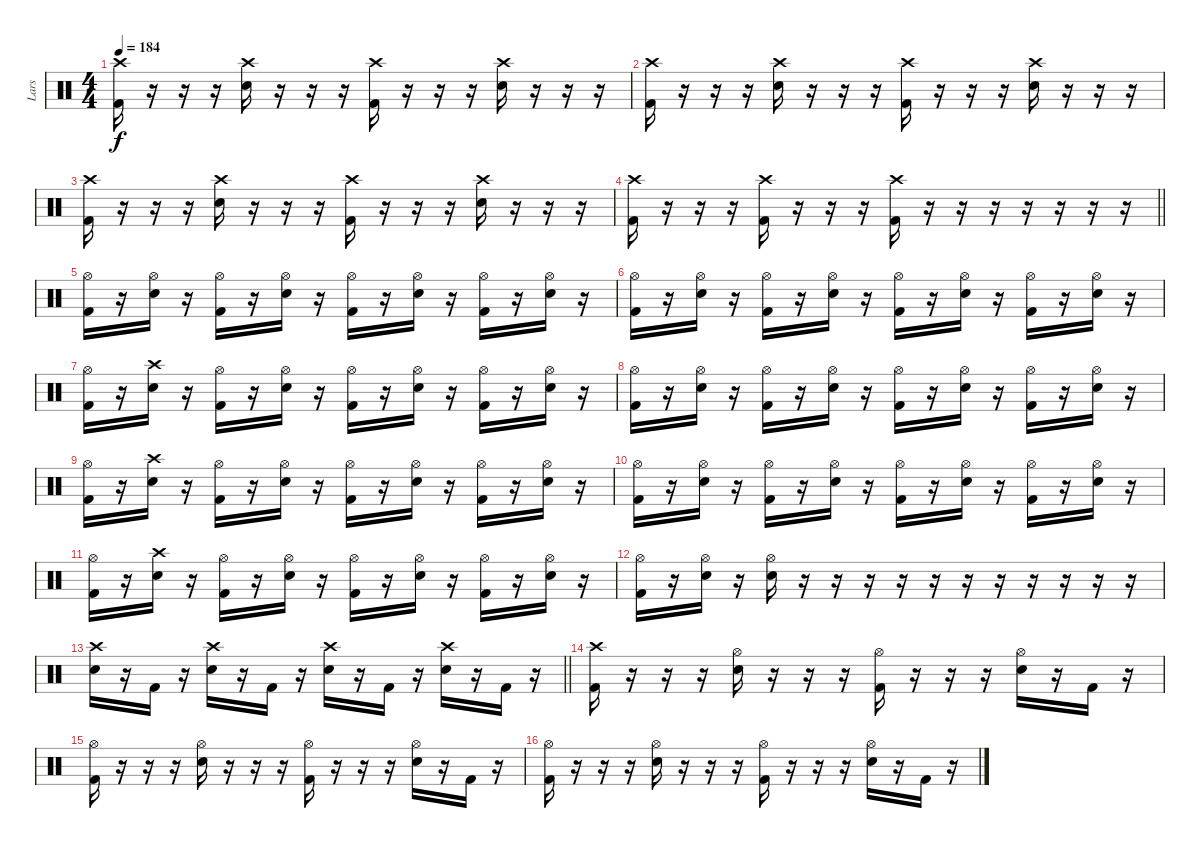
\track ("Lars" "Lars") {instrument percussion}
\staff {score}
\articulation defaults
\ts (4 4)
\tempo 184
\clef neutral
\ks c
("Crash high (hit)" "Kick (hit) 2").16{dy f} r.16 r.16 r.16 ("Crash high (hit)" "Electric Snare (hit)").16 r.16 r.16 r.16 ("Crash high (hit)" "Kick (hit) 2").16 r.16 r.16 r.16 ("Crash high (hit)" "Electric Snare (hit)").16 r.16 r.16 r.16 |
("Crash high (hit)" "Kick (hit) 2").16 r.16 r.16 r.16 ("Crash high (hit)" "Electric Snare (hit)").16 r.16 r.16 r.16 ("Crash high (hit)" "Kick (hit) 2").16 r.16 r.16 r.16 ("Crash high (hit)" "Electric Snare (hit)").16 r.16 r.16 r.16 |
("Crash high (hit)" "Kick (hit) 2").16 r.16 r.16 r.16 ("Crash high (hit)" "Electric Snare (hit)").16 r.16 r.16 r.16 ("Crash high (hit)" "Kick (hit) 2").16 r.16 r.16 r.16 ("Crash high (hit)" "Electric Snare (hit)").16 r.16 r.16 r.16 |
\barLineRight lightlight
("Crash high (hit)" "Kick (hit) 2").16 r.16 r.16 r.16{volume 0} ("Crash high (hit)" "Kick (hit) 2").16{volume 10} r.16 r.16 r.16{volume 0} ("Crash high (hit)" "Kick (hit) 2").16{volume 10} r.16 r.16 r.16{volume 0} r.16 r.16 r.16 r.16 |
("Hi-Hat (open)" "Kick (hit) 2").16{volume 10} r.16 ("Electric Snare (hit)" "Hi-Hat (open)").16 r.16 ("Hi-Hat (open)" "Kick (hit) 2").16 r.16 ("Electric Snare (hit)" "Hi-Hat (open)").16 r.16 ("Hi-Hat (open)" "Kick (hit) 2").16 r.16 ("Electric Snare (hit)" "Hi-Hat (open)").16 r.16 ("Hi-Hat (open)" "Kick (hit) 2").16 r.16 ("Electric Snare (hit)" "Hi-Hat (open)").16 r.16 |
("Hi-Hat (open)" "Kick (hit) 2").16 r.16 ("Electric Snare (hit)" "Hi-Hat (open)").16 r.16 ("Hi-Hat (open)" "Kick (hit) 2").16 r.16 ("Electric Snare (hit)" "Hi-Hat (open)").16 r.16 ("Hi-Hat (open)" "Kick (hit) 2").16 r.16 ("Electric Snare (hit)" "Hi-Hat (open)").16 r.16 ("Hi-Hat (open)" "Kick (hit) 2").16 r.16 ("Electric Snare (hit)" "Hi-Hat (open)").16 r.16 |
("Hi-Hat (open)" "Kick (hit) 2").16 r.16 ("Crash high (hit)" "Electric Snare (hit)").16 r.16 ("Hi-Hat (open)" "Kick (hit) 2").16 r.16 ("Electric Snare (hit)" "Hi-Hat (open)").16 r.16 ("Hi-Hat (open)" "Kick (hit) 2").16 r.16 ("Electric Snare (hit)" "Hi-Hat (open)").16 r.16 ("Hi-Hat (open)" "Kick (hit) 2").16 r.16 ("Electric Snare (hit)" "Hi-Hat (open)").16 r.16 |
("Hi-Hat (open)" "Kick (hit) 2").16 r.16 ("Electric Snare (hit)" "Hi-Hat (open)").16 r.16 ("Hi-Hat (open)" "Kick (hit) 2").16 r.16 ("Electric Snare (hit)" "Hi-Hat (open)").16 r.16 ("Hi-Hat (open)" "Kick (hit) 2").16 r.16 ("Electric Snare (hit)" "Hi-Hat (open)").16 r.16 ("Hi-Hat (open)" "Kick (hit) 2").16 r.16 ("Electric Snare (hit)" "Hi-Hat (open)").16 r.16 |
("Hi-Hat (open)" "Kick (hit) 2").16 r.16 ("Crash high (hit)" "Electric Snare (hit)").16 r.16 ("Hi-Hat (open)" "Kick (hit) 2").16 r.16 ("Electric Snare (hit)" "Hi-Hat (open)").16 r.16 ("Hi-Hat (open)" "Kick (hit) 2").16 r.16 ("Electric Snare (hit)" "Hi-Hat (open)").16 r.16 ("Hi-Hat (open)" "Kick (hit) 2").16 r.16 ("Electric Snare (hit)" "Hi-Hat (open)").16 r.16 |
("Hi-Hat (open)" "Kick (hit) 2").16 r.16 ("Electric Snare (hit)" "Hi-Hat (open)").16 r.16 ("Hi-Hat (open)" "Kick (hit) 2").16 r.16 ("Electric Snare (hit)" "Hi-Hat (open)").16 r.16 ("Hi-Hat (open)" "Kick (hit) 2").16 r.16 ("Electric Snare (hit)" "Hi-Hat (open)").16 r.16 ("Hi-Hat (open)" "Kick (hit) 2").16 r.16 ("Electric Snare (hit)" "Hi-Hat (open)").16 r.16 |
("Hi-Hat (open)" "Kick (hit) 2").16 r.16 ("Crash high (hit)" "Electric Snare (hit)").16 r.16 ("Hi-Hat (open)" "Kick (hit) 2").16 r.16 ("Electric Snare (hit)" "Hi-Hat (open)").16 r.16 ("Hi-Hat (open)" "Kick (hit) 2").16 r.16 ("Electric Snare (hit)" "Hi-Hat (open)").16 r.16 ("Hi-Hat (open)" "Kick (hit) 2").16 r.16 ("Electric Snare (hit)" "Hi-Hat (open)").16 r.16 |
("Hi-Hat (open)" "Kick (hit) 2").16 r.16 ("Electric Snare (hit)" "Hi-Hat (open)").16 r.16 ("Electric Snare (hit)" "Hi-Hat (open)").16 r.16 r.16 r.16 r.16 r.16 r.16 r.16 r.16 r.16 r.16 r.16 |
\barLineRight lightlight
("Crash high (hit)" "Electric Snare (hit)").16 r.16 "Kick (hit) 2".16 r.16 ("Crash high (hit)" "Electric Snare (hit)").16 r.16 "Kick (hit) 2".16 r.16 ("Crash high (hit)" "Electric Snare (hit)").16 r.16 "Kick (hit) 2".16 r.16 ("Crash high (hit)" "Electric Snare (hit)").16 r.16 "Kick (hit) 2".16 r.16 |
("Crash high (hit)" "Kick (hit) 2").16 r.16 r.16 r.16 ("Electric Snare (hit)" "Hi-Hat (open)").16 r.16 r.16 r.16 ("Hi-Hat (open)" "Kick (hit) 2").16 r.16 r.16 r.16 ("Electric Snare (hit)" "Hi-Hat (open)").16 r.16 "Kick (hit) 2".16 r.16 |
("Hi-Hat (open)" "Kick (hit) 2").16 r.16 r.16 r.16 ("Electric Snare (hit)" "Hi-Hat (open)").16 r.16 r.16 r.16 ("Hi-Hat (open)" "Kick (hit) 2").16 r.16 r.16 r.16 ("Electric Snare (hit)" "Hi-Hat (open)").16 r.16 "Kick (hit) 2".16 r.16 |
("Hi-Hat (open)" "Kick (hit) 2").16 r.16 r.16 r.16 ("Electric Snare (hit)" "Hi-Hat (open)").16 r.16 r.16 r.16 ("Hi-Hat (open)" "Kick (hit) 2").16 r.16 r.16 r.16 ("Electric Snare (hit)" "Hi-Hat (open)").16 r.16 "Kick (hit) 2".16 r.16
